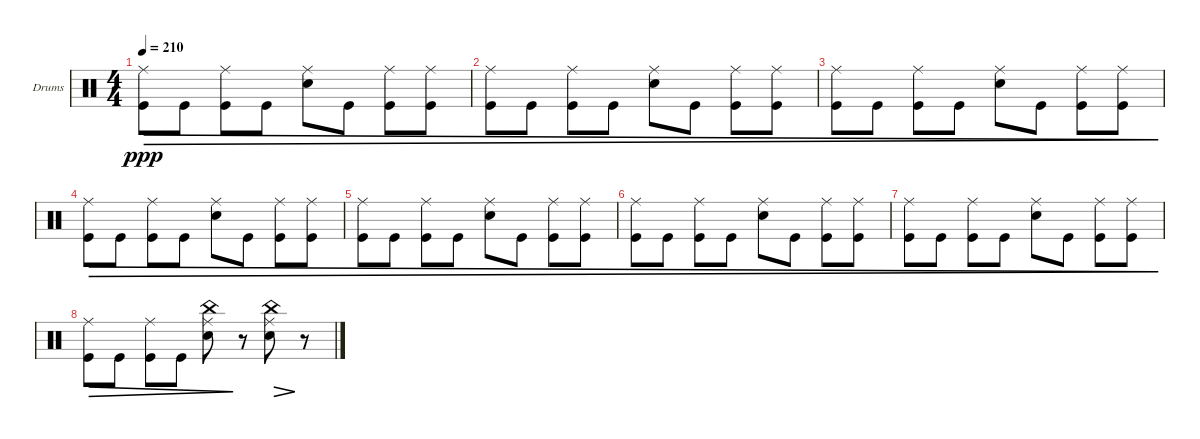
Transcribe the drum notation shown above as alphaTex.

\bracketExtendMode groupsimilarinstruments
\firstSystemTrackNameOrientation horizontal
\otherSystemsTrackNameOrientation horizontal
\track ("Drumkit" "Drums") {instrument percussion}
\staff {score}
\articulation defaults
\ts (4 4)
\tempo 210
\clef neutral
\ks c
("Kick (hit)" "Ride (middle)").8{dec dy ppp} "Kick (hit)".8{dec} ("Kick (hit)" "Ride (middle)").8{dec} "Kick (hit)".8{dec} ("Snare (hit) 2" "Ride (middle)").8{dec} "Kick (hit)".8{dec} ("Kick (hit)" "Ride (middle)").8{dec} ("Kick (hit)" "Ride (middle)").8{dec} |
("Kick (hit)" "Ride (middle)").8{dec} "Kick (hit)".8{dec} ("Kick (hit)" "Ride (middle)").8{dec} "Kick (hit)".8{dec} ("Snare (hit) 2" "Ride (middle)").8{dec} "Kick (hit)".8{dec} ("Kick (hit)" "Ride (middle)").8{dec} ("Kick (hit)" "Ride (middle)").8{dec} |
("Kick (hit)" "Ride (middle)").8{dec} "Kick (hit)".8{dec} ("Kick (hit)" "Ride (middle)").8{dec} "Kick (hit)".8{dec} ("Snare (hit) 2" "Ride (middle)").8{dec} "Kick (hit)".8{dec} ("Kick (hit)" "Ride (middle)").8{dec} ("Kick (hit)" "Ride (middle)").8{dec} |
("Kick (hit)" "Ride (middle)").8{dec} "Kick (hit)".8{dec} ("Kick (hit)" "Ride (middle)").8{dec} "Kick (hit)".8{dec} ("Snare (hit) 2" "Ride (middle)").8{dec} "Kick (hit)".8{dec} ("Kick (hit)" "Ride (middle)").8{dec} ("Kick (hit)" "Ride (middle)").8{dec} |
("Kick (hit)" "Ride (middle)").8{dec} "Kick (hit)".8{dec} ("Kick (hit)" "Ride (middle)").8{dec} "Kick (hit)".8{dec} ("Snare (hit) 2" "Ride (middle)").8{dec} "Kick (hit)".8{dec} ("Kick (hit)" "Ride (middle)").8{dec} ("Kick (hit)" "Ride (middle)").8{dec} |
("Kick (hit)" "Ride (middle)").8{dec} "Kick (hit)".8{dec} ("Kick (hit)" "Ride (middle)").8{dec} "Kick (hit)".8{dec} ("Snare (hit) 2" "Ride (middle)").8{dec} "Kick (hit)".8{dec} ("Kick (hit)" "Ride (middle)").8{dec} ("Kick (hit)" "Ride (middle)").8{dec} |
("Kick (hit)" "Ride (middle)").8{dec} "Kick (hit)".8{dec} ("Kick (hit)" "Ride (middle)").8{dec} "Kick (hit)".8{dec} ("Snare (hit) 2" "Ride (middle)").8{dec} "Kick (hit)".8{dec} ("Kick (hit)" "Ride (middle)").8{dec} ("Kick (hit)" "Ride (middle)").8{dec} |
("Kick (hit)" "Ride (middle)").8{dec} "Kick (hit)".8{dec} ("Kick (hit)" "Ride (middle)").8{dec} "Kick (hit)".8{dec} ("Snare (hit) 2" "Ride (middle)" "China (hit)").8{dec} r.8 ("Ride (middle)" "Snare (hit) 2" "China (hit)").8{dec} r.8
